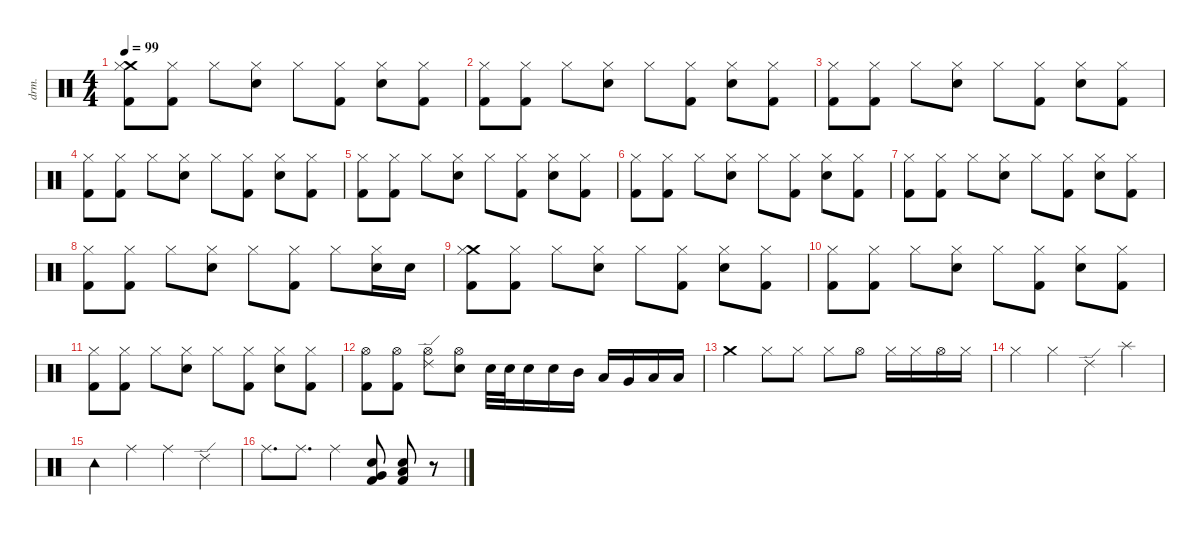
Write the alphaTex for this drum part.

\defaultSystemsLayout 4
\hideDynamics
\bracketExtendMode nobrackets
\otherSystemsTrackNameOrientation horizontal
\track ("Drum" "drm.") {instrument percussion}
\staff {score}
\articulation defaults
\ts (4 4)
\tempo 99
\clef neutral
\ks c
("Crash medium (hit)" "Hi-Hat (closed)" "Kick (hit) 2").8{dy f} ("Hi-Hat (closed)" "Kick (hit) 2").8 "Hi-Hat (closed)".8 ("Hi-Hat (closed)" "Snare (hit) 2").8 "Hi-Hat (closed)".8 ("Hi-Hat (closed)" "Kick (hit) 2").8 ("Hi-Hat (closed)" "Snare (hit) 2").8 ("Hi-Hat (closed)" "Kick (hit) 2").8 |
("Hi-Hat (closed)" "Kick (hit) 2").8 ("Hi-Hat (closed)" "Kick (hit) 2").8 "Hi-Hat (closed)".8 ("Hi-Hat (closed)" "Snare (hit) 2").8 "Hi-Hat (closed)".8 ("Hi-Hat (closed)" "Kick (hit) 2").8 ("Hi-Hat (closed)" "Snare (hit) 2").8 ("Hi-Hat (closed)" "Kick (hit) 2").8 |
("Hi-Hat (closed)" "Kick (hit) 2").8 ("Hi-Hat (closed)" "Kick (hit) 2").8 "Hi-Hat (closed)".8 ("Hi-Hat (closed)" "Snare (hit) 2").8 "Hi-Hat (closed)".8 ("Hi-Hat (closed)" "Kick (hit) 2").8 ("Hi-Hat (closed)" "Snare (hit) 2").8 ("Hi-Hat (closed)" "Kick (hit) 2").8 |
("Hi-Hat (closed)" "Kick (hit) 2").8 ("Hi-Hat (closed)" "Kick (hit) 2").8 "Hi-Hat (closed)".8 ("Hi-Hat (closed)" "Snare (hit) 2").8 "Hi-Hat (closed)".8 ("Hi-Hat (closed)" "Kick (hit) 2").8 ("Hi-Hat (closed)" "Snare (hit) 2").8 ("Hi-Hat (closed)" "Kick (hit) 2").8 |
("Hi-Hat (closed)" "Kick (hit) 2").8 ("Hi-Hat (closed)" "Kick (hit) 2").8 "Hi-Hat (closed)".8 ("Hi-Hat (closed)" "Snare (hit) 2").8 "Hi-Hat (closed)".8 ("Hi-Hat (closed)" "Kick (hit) 2").8 ("Hi-Hat (closed)" "Snare (hit) 2").8 ("Hi-Hat (closed)" "Kick (hit) 2").8 |
("Hi-Hat (closed)" "Kick (hit) 2").8 ("Hi-Hat (closed)" "Kick (hit) 2").8 "Hi-Hat (closed)".8 ("Hi-Hat (closed)" "Snare (hit) 2").8 "Hi-Hat (closed)".8 ("Hi-Hat (closed)" "Kick (hit) 2").8 ("Hi-Hat (closed)" "Snare (hit) 2").8 ("Hi-Hat (closed)" "Kick (hit) 2").8 |
("Hi-Hat (closed)" "Kick (hit) 2").8 ("Hi-Hat (closed)" "Kick (hit) 2").8 "Hi-Hat (closed)".8 ("Hi-Hat (closed)" "Snare (hit) 2").8 "Hi-Hat (closed)".8 ("Hi-Hat (closed)" "Kick (hit) 2").8 ("Hi-Hat (closed)" "Snare (hit) 2").8 ("Hi-Hat (closed)" "Kick (hit) 2").8 |
("Hi-Hat (closed)" "Kick (hit) 2").8 ("Hi-Hat (closed)" "Kick (hit) 2").8 "Hi-Hat (closed)".8 ("Hi-Hat (closed)" "Snare (hit) 2").8 "Hi-Hat (closed)".8 ("Hi-Hat (closed)" "Kick (hit) 2").8 "Hi-Hat (closed)".8 ("Hi-Hat (closed)" "Snare (hit) 2").16 "Snare (hit) 2".16 |
("Crash medium (hit)" "Hi-Hat (closed)" "Kick (hit) 2").8 ("Hi-Hat (closed)" "Kick (hit) 2").8 "Hi-Hat (closed)".8 ("Hi-Hat (closed)" "Snare (hit) 2").8 "Hi-Hat (closed)".8 ("Hi-Hat (closed)" "Kick (hit) 2").8 ("Hi-Hat (closed)" "Snare (hit) 2").8 ("Hi-Hat (closed)" "Kick (hit) 2").8 |
("Hi-Hat (closed)" "Kick (hit) 2").8 ("Hi-Hat (closed)" "Kick (hit) 2").8 "Hi-Hat (closed)".8 ("Hi-Hat (closed)" "Snare (hit) 2").8 "Hi-Hat (closed)".8 ("Hi-Hat (closed)" "Kick (hit) 2").8 ("Hi-Hat (closed)" "Snare (hit) 2").8 ("Hi-Hat (closed)" "Kick (hit) 2").8 |
("Hi-Hat (closed)" "Kick (hit) 2").8 ("Hi-Hat (closed)" "Kick (hit) 2").8 "Hi-Hat (closed)".8 ("Hi-Hat (closed)" "Snare (hit) 2").8 "Hi-Hat (closed)".8 ("Hi-Hat (closed)" "Kick (hit) 2").8 ("Hi-Hat (closed)" "Snare (hit) 2").8 ("Hi-Hat (closed)" "Kick (hit) 2").8 |
("Hi-Hat (open)" "Kick (hit) 2").8 ("Hi-Hat (open)" "Kick (hit) 2").8 ("Ride (edge) 2" "Hi-Hat (open)").8 ("Hi-Hat (open)" "Snare (hit) 2").8 "Snare (hit) 2".32 "Snare (hit) 2".32 "Snare (hit) 2".16 "Snare (hit) 2".16 "Mid Tom (hit)".16 "Low Tom (hit)".16 "Very Low Tom (hit)".16 "Low Floor Tom (hit)".16 "Low Floor Tom (hit)".16 |
"Crash medium (hit)".4 "Hi-Hat (closed)".8 "Hi-Hat (closed)".8 "Hi-Hat (closed)".8 "Hi-Hat (open)".8 "Hi-Hat (closed)".16 "Hi-Hat (closed)".16 "Hi-Hat (open)".16 "Hi-Hat (closed)".16 |
"Hi-Hat (closed)".4 "Hi-Hat (closed)".4 "Ride (edge) 2".4 "Splash (hit)".4 |
"Tambourine (hit)".4 "Ride (middle)".4 "Ride (middle)".4 "Ride (edge) 2".4 |
"Ride (middle)".8{d} "Ride (middle)".8{d} "Ride (middle)".4 ("Kick (hit) 2" "Very Low Tom (hit)" "Snare (hit) 2").8 ("Kick (hit) 2" "Low Floor Tom (hit)" "Snare (hit) 2").8 r.8
